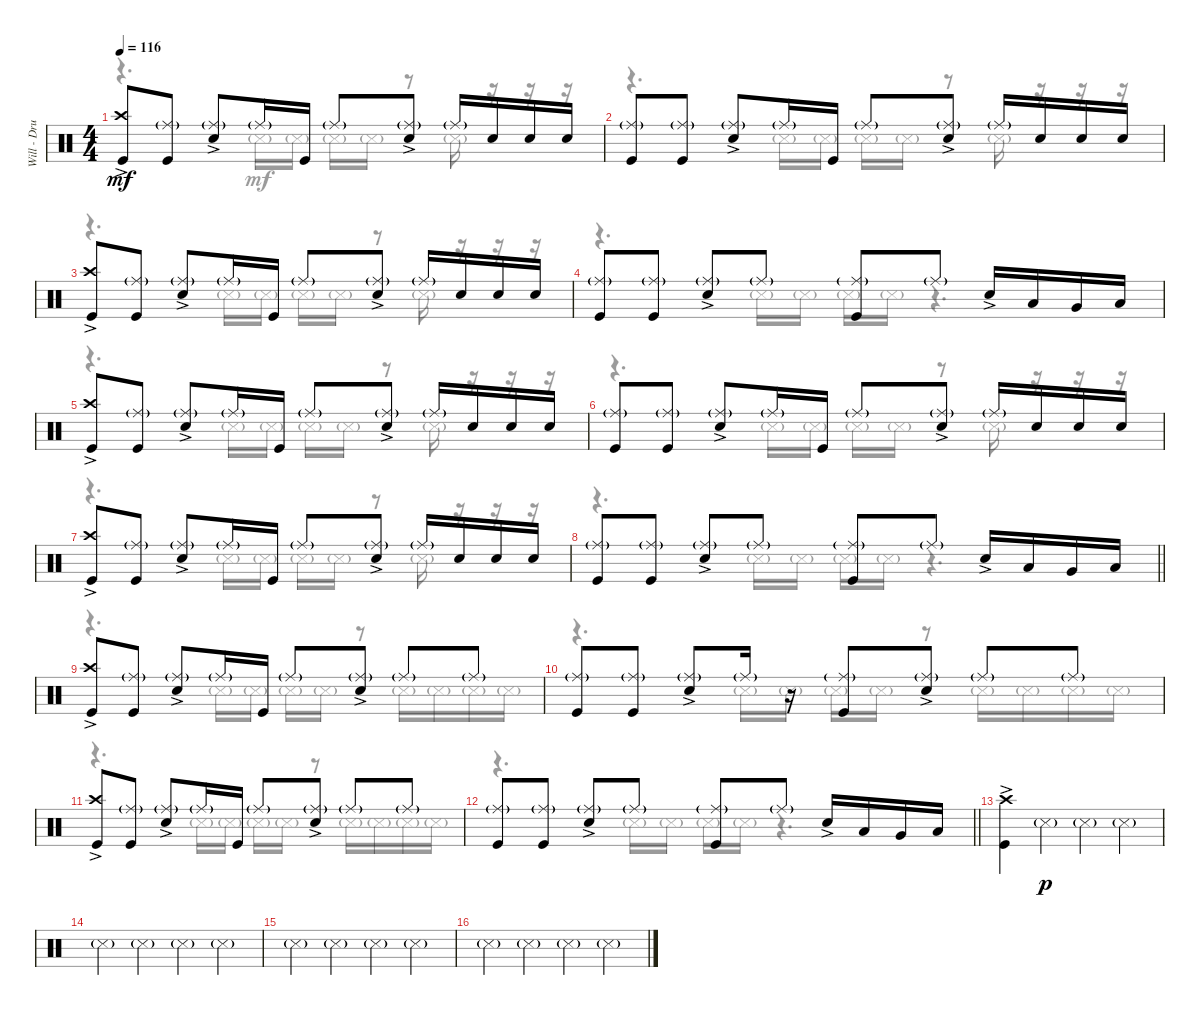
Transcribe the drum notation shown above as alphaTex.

\track ("Will - Drumkit" "Will - Dru") {instrument percussion}
\staff {score}
\articulation defaults
\voice
\ts (4 4)
\tempo 116
\clef neutral
\ks c
("Kick (hit)" "Crash high (hit)"{ac}).8{dy mf} ("Kick (hit)" "Ride (middle)"{g}).8 ("Snare (hit) 2"{ac} "Ride (middle)"{g}).8 "Ride (middle)"{g}.16 "Kick (hit)".16 "Ride (middle)"{g}.8 ("Ride (middle)"{g} "Snare (hit) 2"{ac}).8 "Ride (middle)"{g}.16 "Snare (hit) 2".16 "Snare (hit) 2".16 "Snare (hit) 2".16 |
("Kick (hit)" "Ride (middle)"{g}).8 ("Kick (hit)" "Ride (middle)"{g}).8 ("Snare (hit) 2"{ac} "Ride (middle)"{g}).8 "Ride (middle)"{g}.16 "Kick (hit)".16 "Ride (middle)"{g}.8 ("Ride (middle)"{g} "Snare (hit) 2"{ac}).8 "Ride (middle)"{g}.16 "Snare (hit) 2".16 "Snare (hit) 2".16 "Snare (hit) 2".16 |
("Kick (hit)" "Crash high (hit)"{ac}).8 ("Kick (hit)" "Ride (middle)"{g}).8 ("Snare (hit) 2"{ac} "Ride (middle)"{g}).8 "Ride (middle)"{g}.16 "Kick (hit)".16 "Ride (middle)"{g}.8 ("Ride (middle)"{g} "Snare (hit) 2"{ac}).8 "Ride (middle)"{g}.16 "Snare (hit) 2".16 "Snare (hit) 2".16 "Snare (hit) 2".16 |
("Kick (hit)" "Ride (middle)"{g}).8 ("Kick (hit)" "Ride (middle)"{g}).8 ("Snare (hit) 2"{ac} "Ride (middle)"{g}).8 "Ride (middle)"{g}.8 ("Kick (hit)" "Ride (middle)"{g}).8 "Ride (middle)"{g}.8 "Snare (hit) 2"{ac}.16 "Low Tom (hit)".16 "Very Low Tom (hit)".16 "Low Floor Tom (hit)".16 |
("Kick (hit)" "Crash high (hit)"{ac}).8 ("Kick (hit)" "Ride (middle)"{g}).8 ("Snare (hit) 2"{ac} "Ride (middle)"{g}).8 "Ride (middle)"{g}.16 "Kick (hit)".16 "Ride (middle)"{g}.8 ("Ride (middle)"{g} "Snare (hit) 2"{ac}).8 "Ride (middle)"{g}.16 "Snare (hit) 2".16 "Snare (hit) 2".16 "Snare (hit) 2".16 |
("Kick (hit)" "Ride (middle)"{g}).8 ("Kick (hit)" "Ride (middle)"{g}).8 ("Snare (hit) 2"{ac} "Ride (middle)"{g}).8 "Ride (middle)"{g}.16 "Kick (hit)".16 "Ride (middle)"{g}.8 ("Ride (middle)"{g} "Snare (hit) 2"{ac}).8 "Ride (middle)"{g}.16 "Snare (hit) 2".16 "Snare (hit) 2".16 "Snare (hit) 2".16 |
("Kick (hit)" "Crash high (hit)"{ac}).8 ("Kick (hit)" "Ride (middle)"{g}).8 ("Snare (hit) 2"{ac} "Ride (middle)"{g}).8 "Ride (middle)"{g}.16 "Kick (hit)".16 "Ride (middle)"{g}.8 ("Ride (middle)"{g} "Snare (hit) 2"{ac}).8 "Ride (middle)"{g}.16 "Snare (hit) 2".16 "Snare (hit) 2".16 "Snare (hit) 2".16 |
\barLineRight lightlight
("Kick (hit)" "Ride (middle)"{g}).8 ("Kick (hit)" "Ride (middle)"{g}).8 ("Snare (hit) 2"{ac} "Ride (middle)"{g}).8 "Ride (middle)"{g}.8 ("Kick (hit)" "Ride (middle)"{g}).8 "Ride (middle)"{g}.8 "Snare (hit) 2"{ac}.16 "Low Tom (hit)".16 "Very Low Tom (hit)".16 "Low Floor Tom (hit)".16 |
("Kick (hit)" "Crash high (hit)"{ac}).8 ("Kick (hit)" "Ride (middle)"{g}).8 ("Snare (hit) 2"{ac} "Ride (middle)"{g}).8 "Ride (middle)"{g}.16 "Kick (hit)".16 "Ride (middle)"{g}.8 ("Ride (middle)"{g} "Snare (hit) 2"{ac}).8 "Ride (middle)"{g}.8 "Ride (middle)"{g}.8 |
("Kick (hit)" "Ride (middle)"{g}).8 ("Kick (hit)" "Ride (middle)"{g}).8 ("Snare (hit) 2"{ac} "Ride (middle)"{g}).8 "Ride (middle)"{g}.16 r.16 ("Ride (middle)"{g} "Kick (hit)").8 ("Ride (middle)"{g} "Snare (hit) 2"{ac}).8 "Ride (middle)"{g}.8 "Ride (middle)"{g}.8 |
("Kick (hit)" "Crash high (hit)"{ac}).8 ("Kick (hit)" "Ride (middle)"{g}).8 ("Snare (hit) 2"{ac} "Ride (middle)"{g}).8 "Ride (middle)"{g}.16 "Kick (hit)".16 "Ride (middle)"{g}.8 ("Ride (middle)"{g} "Snare (hit) 2"{ac}).8 "Ride (middle)"{g}.8 "Ride (middle)"{g}.8 |
\barLineRight lightlight
("Kick (hit)" "Ride (middle)"{g}).8 ("Kick (hit)" "Ride (middle)"{g}).8 ("Snare (hit) 2"{ac} "Ride (middle)"{g}).8 "Ride (middle)"{g}.8 ("Kick (hit)" "Ride (middle)"{g}).8 "Ride (middle)"{g}.8 "Snare (hit) 2"{ac}.16 "Low Tom (hit)".16 "Very Low Tom (hit)".16 "Low Floor Tom (hit)".16 |
("Kick (hit)" "Crash high (hit)"{ac}).4 "Snare (side stick) 3"{g}.4{dy p} "Snare (side stick) 3"{g}.4 "Snare (side stick) 3"{g}.4 |
"Snare (side stick) 3"{g}.4 "Snare (side stick) 3"{g}.4 "Snare (side stick) 3"{g}.4 "Snare (side stick) 3"{g}.4 |
"Snare (side stick) 3"{g}.4 "Snare (side stick) 3"{g}.4 "Snare (side stick) 3"{g}.4 "Snare (side stick) 3"{g}.4 |
"Snare (side stick) 3"{g}.4 "Snare (side stick) 3"{g}.4 "Snare (side stick) 3"{g}.4 "Snare (side stick) 3"{g}.4
\voice
\clef neutral
\ottava regular
\simile none
\ks c
r.4{d dy mf} "Snare (side stick) 3"{g}.16 "Snare (side stick) 3"{g}.16 "Snare (side stick) 3"{g}.16 "Snare (side stick) 3"{g}.16 r.8 "Snare (side stick) 3"{g}.16 r.16 r.16 r.16 |
r.4{d} "Snare (side stick) 3"{g}.16 "Snare (side stick) 3"{g}.16 "Snare (side stick) 3"{g}.16 "Snare (side stick) 3"{g}.16 r.8 "Snare (side stick) 3"{g}.16 r.16 r.16 r.16 |
r.4{d} "Snare (side stick) 3"{g}.16 "Snare (side stick) 3"{g}.16 "Snare (side stick) 3"{g}.16 "Snare (side stick) 3"{g}.16 r.8 "Snare (side stick) 3"{g}.16 r.16 r.16 r.16 |
r.4{d} "Snare (side stick) 3"{g}.16 "Snare (side stick) 3"{g}.16 "Snare (side stick) 3"{g}.16 "Snare (side stick) 3"{g}.16 r.4{d} |
r.4{d} "Snare (side stick) 3"{g}.16 "Snare (side stick) 3"{g}.16 "Snare (side stick) 3"{g}.16 "Snare (side stick) 3"{g}.16 r.8 "Snare (side stick) 3"{g}.16 r.16 r.16 r.16 |
r.4{d} "Snare (side stick) 3"{g}.16 "Snare (side stick) 3"{g}.16 "Snare (side stick) 3"{g}.16 "Snare (side stick) 3"{g}.16 r.8 "Snare (side stick) 3"{g}.16 r.16 r.16 r.16 |
r.4{d} "Snare (side stick) 3"{g}.16 "Snare (side stick) 3"{g}.16 "Snare (side stick) 3"{g}.16 "Snare (side stick) 3"{g}.16 r.8 "Snare (side stick) 3"{g}.16 r.16 r.16 r.16 |
\barLineRight lightlight
r.4{d} "Snare (side stick) 3"{g}.16 "Snare (side stick) 3"{g}.16 "Snare (side stick) 3"{g}.16 "Snare (side stick) 3"{g}.16 r.4{d} |
r.4{d} "Snare (side stick) 3"{g}.16 "Snare (side stick) 3"{g}.16 "Snare (side stick) 3"{g}.16 "Snare (side stick) 3"{g}.16 r.8 "Snare (side stick) 3"{g}.16 "Snare (side stick) 3"{g}.16 "Snare (side stick) 3"{g}.16 "Snare (side stick) 3"{g}.16 |
r.4{d} "Snare (side stick) 3"{g}.16 "Snare (side stick) 3"{g}.16 "Snare (side stick) 3"{g}.16 "Snare (side stick) 3"{g}.16 r.8 "Snare (side stick) 3"{g}.16 "Snare (side stick) 3"{g}.16 "Snare (side stick) 3"{g}.16 "Snare (side stick) 3"{g}.16 |
r.4{d} "Snare (side stick) 3"{g}.16 "Snare (side stick) 3"{g}.16 "Snare (side stick) 3"{g}.16 "Snare (side stick) 3"{g}.16 r.8 "Snare (side stick) 3"{g}.16 "Snare (side stick) 3"{g}.16 "Snare (side stick) 3"{g}.16 "Snare (side stick) 3"{g}.16 |
\barLineRight lightlight
r.4{d} "Snare (side stick) 3"{g}.16 "Snare (side stick) 3"{g}.16 "Snare (side stick) 3"{g}.16 "Snare (side stick) 3"{g}.16 r.4{d} |
|
|
|
